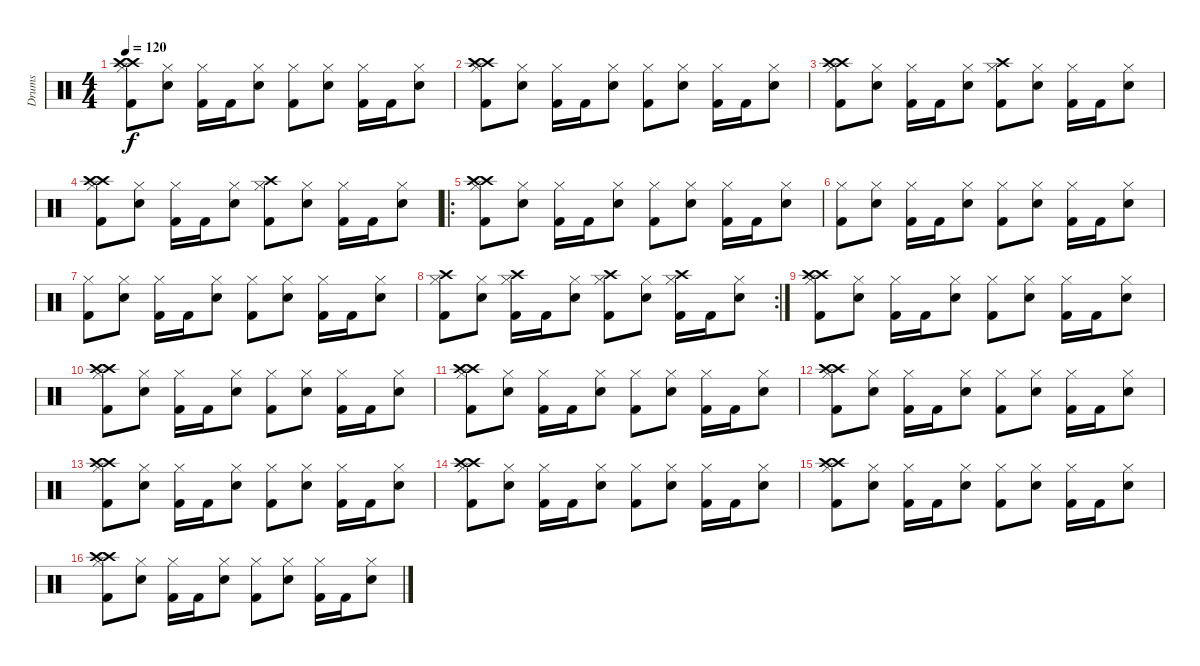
\track ("Drums" "Drums") {instrument percussion}
\staff {score}
\articulation defaults
\ts (4 4)
\tempo 120
\clef neutral
\ks c
("Crash high (hit)" "Hi-Hat (closed)" "Crash high (hit)" "Kick (hit) 2").8{dy f} ("Hi-Hat (closed)" "Electric Snare (hit)").8 ("Hi-Hat (closed)" "Kick (hit) 2").16 "Kick (hit) 2".16 ("Hi-Hat (closed)" "Electric Snare (hit)").8 ("Hi-Hat (closed)" "Kick (hit) 2").8 ("Hi-Hat (closed)" "Electric Snare (hit)").8 ("Hi-Hat (closed)" "Kick (hit) 2").16 "Kick (hit) 2".16 ("Hi-Hat (closed)" "Electric Snare (hit)").8 |
("Crash high (hit)" "Hi-Hat (closed)" "Crash high (hit)" "Kick (hit) 2").8 ("Hi-Hat (closed)" "Electric Snare (hit)").8 ("Hi-Hat (closed)" "Kick (hit) 2").16 "Kick (hit) 2".16 ("Hi-Hat (closed)" "Electric Snare (hit)").8 ("Hi-Hat (closed)" "Kick (hit) 2").8 ("Hi-Hat (closed)" "Electric Snare (hit)").8 ("Hi-Hat (closed)" "Kick (hit) 2").16 "Kick (hit) 2".16 ("Hi-Hat (closed)" "Electric Snare (hit)").8 |
("Crash high (hit)" "Hi-Hat (closed)" "Crash high (hit)" "Kick (hit) 2").8 ("Hi-Hat (closed)" "Electric Snare (hit)").8 ("Hi-Hat (closed)" "Kick (hit) 2").16 "Kick (hit) 2".16 ("Hi-Hat (closed)" "Electric Snare (hit)").8 ("Hi-Hat (closed)" "Crash high (hit)" "Kick (hit) 2").8 ("Hi-Hat (closed)" "Electric Snare (hit)").8 ("Hi-Hat (closed)" "Kick (hit) 2").16 "Kick (hit) 2".16 ("Hi-Hat (closed)" "Electric Snare (hit)").8 |
("Crash high (hit)" "Hi-Hat (closed)" "Crash high (hit)" "Kick (hit) 2").8 ("Hi-Hat (closed)" "Electric Snare (hit)").8 ("Hi-Hat (closed)" "Kick (hit) 2").16 "Kick (hit) 2".16 ("Hi-Hat (closed)" "Electric Snare (hit)").8 ("Hi-Hat (closed)" "Crash high (hit)" "Kick (hit) 2").8 ("Hi-Hat (closed)" "Electric Snare (hit)").8 ("Hi-Hat (closed)" "Kick (hit) 2").16 "Kick (hit) 2".16 ("Hi-Hat (closed)" "Electric Snare (hit)").8 |
\ro
("Crash high (hit)" "Hi-Hat (closed)" "Crash high (hit)" "Kick (hit) 2").8 ("Hi-Hat (closed)" "Electric Snare (hit)").8 ("Hi-Hat (closed)" "Kick (hit) 2").16 "Kick (hit) 2".16 ("Hi-Hat (closed)" "Electric Snare (hit)").8 ("Hi-Hat (closed)" "Kick (hit) 2").8 ("Hi-Hat (closed)" "Electric Snare (hit)").8 ("Hi-Hat (closed)" "Kick (hit) 2").16 "Kick (hit) 2".16 ("Hi-Hat (closed)" "Electric Snare (hit)").8 |
("Hi-Hat (closed)" "Kick (hit) 2").8 ("Hi-Hat (closed)" "Electric Snare (hit)").8 ("Hi-Hat (closed)" "Kick (hit) 2").16 "Kick (hit) 2".16 ("Hi-Hat (closed)" "Electric Snare (hit)").8 ("Hi-Hat (closed)" "Kick (hit) 2").8 ("Hi-Hat (closed)" "Electric Snare (hit)").8 ("Hi-Hat (closed)" "Kick (hit) 2").16 "Kick (hit) 2".16 ("Hi-Hat (closed)" "Electric Snare (hit)").8 |
("Hi-Hat (closed)" "Kick (hit) 2").8 ("Hi-Hat (closed)" "Electric Snare (hit)").8 ("Hi-Hat (closed)" "Kick (hit) 2").16 "Kick (hit) 2".16 ("Hi-Hat (closed)" "Electric Snare (hit)").8 ("Hi-Hat (closed)" "Kick (hit) 2").8 ("Hi-Hat (closed)" "Electric Snare (hit)").8 ("Hi-Hat (closed)" "Kick (hit) 2").16 "Kick (hit) 2".16 ("Hi-Hat (closed)" "Electric Snare (hit)").8 |
\rc 2
("Hi-Hat (closed)" "Crash high (hit)" "Kick (hit) 2").8 ("Hi-Hat (closed)" "Electric Snare (hit)").8 ("Hi-Hat (closed)" "Crash high (hit)" "Kick (hit) 2").16 "Kick (hit) 2".16 ("Hi-Hat (closed)" "Electric Snare (hit)").8 ("Hi-Hat (closed)" "Crash high (hit)" "Kick (hit) 2").8 ("Hi-Hat (closed)" "Electric Snare (hit)").8 ("Hi-Hat (closed)" "Crash high (hit)" "Kick (hit) 2").16 "Kick (hit) 2".16 ("Hi-Hat (closed)" "Electric Snare (hit)").8 |
("Crash high (hit)" "Hi-Hat (closed)" "Crash high (hit)" "Kick (hit) 2").8 ("Hi-Hat (closed)" "Electric Snare (hit)").8 ("Hi-Hat (closed)" "Kick (hit) 2").16 "Kick (hit) 2".16 ("Hi-Hat (closed)" "Electric Snare (hit)").8 ("Hi-Hat (closed)" "Kick (hit) 2").8 ("Hi-Hat (closed)" "Electric Snare (hit)").8 ("Hi-Hat (closed)" "Kick (hit) 2").16 "Kick (hit) 2".16 ("Hi-Hat (closed)" "Electric Snare (hit)").8 |
("Crash high (hit)" "Hi-Hat (closed)" "Crash high (hit)" "Kick (hit) 2").8 ("Hi-Hat (closed)" "Electric Snare (hit)").8 ("Hi-Hat (closed)" "Kick (hit) 2").16 "Kick (hit) 2".16 ("Hi-Hat (closed)" "Electric Snare (hit)").8 ("Hi-Hat (closed)" "Kick (hit) 2").8 ("Hi-Hat (closed)" "Electric Snare (hit)").8 ("Hi-Hat (closed)" "Kick (hit) 2").16 "Kick (hit) 2".16 ("Hi-Hat (closed)" "Electric Snare (hit)").8 |
("Crash high (hit)" "Hi-Hat (closed)" "Crash high (hit)" "Kick (hit) 2").8 ("Hi-Hat (closed)" "Electric Snare (hit)").8 ("Hi-Hat (closed)" "Kick (hit) 2").16 "Kick (hit) 2".16 ("Hi-Hat (closed)" "Electric Snare (hit)").8 ("Hi-Hat (closed)" "Kick (hit) 2").8 ("Hi-Hat (closed)" "Electric Snare (hit)").8 ("Hi-Hat (closed)" "Kick (hit) 2").16 "Kick (hit) 2".16 ("Hi-Hat (closed)" "Electric Snare (hit)").8 |
("Crash high (hit)" "Hi-Hat (closed)" "Crash high (hit)" "Kick (hit) 2").8 ("Hi-Hat (closed)" "Electric Snare (hit)").8 ("Hi-Hat (closed)" "Kick (hit) 2").16 "Kick (hit) 2".16 ("Hi-Hat (closed)" "Electric Snare (hit)").8 ("Hi-Hat (closed)" "Kick (hit) 2").8 ("Hi-Hat (closed)" "Electric Snare (hit)").8 ("Hi-Hat (closed)" "Kick (hit) 2").16 "Kick (hit) 2".16 ("Hi-Hat (closed)" "Electric Snare (hit)").8 |
("Crash high (hit)" "Hi-Hat (closed)" "Crash high (hit)" "Kick (hit) 2").8 ("Hi-Hat (closed)" "Electric Snare (hit)").8 ("Hi-Hat (closed)" "Kick (hit) 2").16 "Kick (hit) 2".16 ("Hi-Hat (closed)" "Electric Snare (hit)").8 ("Hi-Hat (closed)" "Kick (hit) 2").8 ("Hi-Hat (closed)" "Electric Snare (hit)").8 ("Hi-Hat (closed)" "Kick (hit) 2").16 "Kick (hit) 2".16 ("Hi-Hat (closed)" "Electric Snare (hit)").8 |
("Crash high (hit)" "Hi-Hat (closed)" "Crash high (hit)" "Kick (hit) 2").8 ("Hi-Hat (closed)" "Electric Snare (hit)").8 ("Hi-Hat (closed)" "Kick (hit) 2").16 "Kick (hit) 2".16 ("Hi-Hat (closed)" "Electric Snare (hit)").8 ("Hi-Hat (closed)" "Kick (hit) 2").8 ("Hi-Hat (closed)" "Electric Snare (hit)").8 ("Hi-Hat (closed)" "Kick (hit) 2").16 "Kick (hit) 2".16 ("Hi-Hat (closed)" "Electric Snare (hit)").8 |
("Crash high (hit)" "Hi-Hat (closed)" "Crash high (hit)" "Kick (hit) 2").8 ("Hi-Hat (closed)" "Electric Snare (hit)").8 ("Hi-Hat (closed)" "Kick (hit) 2").16 "Kick (hit) 2".16 ("Hi-Hat (closed)" "Electric Snare (hit)").8 ("Hi-Hat (closed)" "Kick (hit) 2").8 ("Hi-Hat (closed)" "Electric Snare (hit)").8 ("Hi-Hat (closed)" "Kick (hit) 2").16 "Kick (hit) 2".16 ("Hi-Hat (closed)" "Electric Snare (hit)").8 |
("Crash high (hit)" "Hi-Hat (closed)" "Crash high (hit)" "Kick (hit) 2").8 ("Hi-Hat (closed)" "Electric Snare (hit)").8 ("Hi-Hat (closed)" "Kick (hit) 2").16 "Kick (hit) 2".16 ("Hi-Hat (closed)" "Electric Snare (hit)").8 ("Hi-Hat (closed)" "Kick (hit) 2").8 ("Hi-Hat (closed)" "Electric Snare (hit)").8 ("Hi-Hat (closed)" "Kick (hit) 2").16 "Kick (hit) 2".16 ("Hi-Hat (closed)" "Electric Snare (hit)").8
